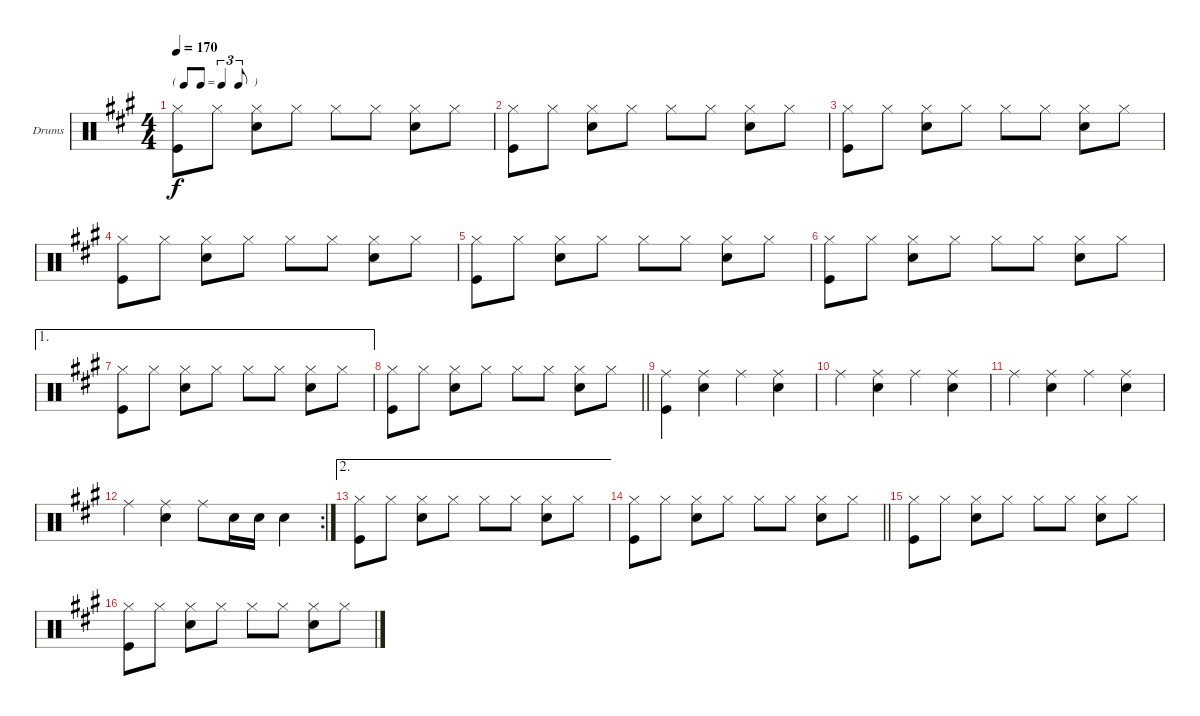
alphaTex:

\bracketExtendMode groupsimilarinstruments
\firstSystemTrackNameOrientation horizontal
\otherSystemsTrackNameOrientation horizontal
\track ("Ringo" "Drums") {instrument percussion}
\staff {score}
\articulation defaults
\ts (4 4)
\tf triplet8th
\tempo 170
\clef neutral
\ks a
("Hi-Hat (closed)" "Kick (hit)").8{dy f} "Hi-Hat (closed)".8 ("Hi-Hat (closed)" "Snare (hit) 2").8 "Hi-Hat (closed)".8 "Hi-Hat (closed)".8 "Hi-Hat (closed)".8 ("Hi-Hat (closed)" "Snare (hit) 2").8 "Hi-Hat (closed)".8 |
("Hi-Hat (closed)" "Kick (hit)").8 "Hi-Hat (closed)".8 ("Hi-Hat (closed)" "Snare (hit) 2").8 "Hi-Hat (closed)".8 "Hi-Hat (closed)".8 "Hi-Hat (closed)".8 ("Hi-Hat (closed)" "Snare (hit) 2").8 "Hi-Hat (closed)".8 |
("Hi-Hat (closed)" "Kick (hit)").8 "Hi-Hat (closed)".8 ("Hi-Hat (closed)" "Snare (hit) 2").8 "Hi-Hat (closed)".8 "Hi-Hat (closed)".8 "Hi-Hat (closed)".8 ("Hi-Hat (closed)" "Snare (hit) 2").8 "Hi-Hat (closed)".8 |
("Hi-Hat (closed)" "Kick (hit)").8 "Hi-Hat (closed)".8 ("Hi-Hat (closed)" "Snare (hit) 2").8 "Hi-Hat (closed)".8 "Hi-Hat (closed)".8 "Hi-Hat (closed)".8 ("Hi-Hat (closed)" "Snare (hit) 2").8 "Hi-Hat (closed)".8 |
("Hi-Hat (closed)" "Kick (hit)").8 "Hi-Hat (closed)".8 ("Hi-Hat (closed)" "Snare (hit) 2").8 "Hi-Hat (closed)".8 "Hi-Hat (closed)".8 "Hi-Hat (closed)".8 ("Hi-Hat (closed)" "Snare (hit) 2").8 "Hi-Hat (closed)".8 |
("Hi-Hat (closed)" "Kick (hit)").8 "Hi-Hat (closed)".8 ("Hi-Hat (closed)" "Snare (hit) 2").8 "Hi-Hat (closed)".8 "Hi-Hat (closed)".8 "Hi-Hat (closed)".8 ("Hi-Hat (closed)" "Snare (hit) 2").8 "Hi-Hat (closed)".8 |
\ae 1
("Hi-Hat (closed)" "Kick (hit)").8 "Hi-Hat (closed)".8 ("Hi-Hat (closed)" "Snare (hit) 2").8 "Hi-Hat (closed)".8 "Hi-Hat (closed)".8 "Hi-Hat (closed)".8 ("Hi-Hat (closed)" "Snare (hit) 2").8 "Hi-Hat (closed)".8 |
\barLineRight lightlight
("Hi-Hat (closed)" "Kick (hit)").8 "Hi-Hat (closed)".8 ("Hi-Hat (closed)" "Snare (hit) 2").8 "Hi-Hat (closed)".8 "Hi-Hat (closed)".8 "Hi-Hat (closed)".8 ("Hi-Hat (closed)" "Snare (hit) 2").8 "Hi-Hat (closed)".8 |
("Ride (middle)" "Kick (hit)").4 ("Ride (middle)" "Snare (hit) 2").4 "Ride (middle)".4 ("Ride (middle)" "Snare (hit) 2").4 |
"Ride (middle)".4 ("Ride (middle)" "Snare (hit) 2").4 "Ride (middle)".4 ("Ride (middle)" "Snare (hit) 2").4 |
"Ride (middle)".4 ("Ride (middle)" "Snare (hit) 2").4 "Ride (middle)".4 ("Ride (middle)" "Snare (hit) 2").4 |
\rc 2 "Ride (middle)".4
("Ride (middle)" "Snare (hit) 2").4 "Ride (middle)".8 "Snare (hit) 2".16 "Snare (hit) 2".16 "Snare (hit) 2".4 |
\ae 2
("Hi-Hat (closed)" "Kick (hit)").8 "Hi-Hat (closed)".8 ("Hi-Hat (closed)" "Snare (hit) 2").8 "Hi-Hat (closed)".8 "Hi-Hat (closed)".8 "Hi-Hat (closed)".8 ("Hi-Hat (closed)" "Snare (hit) 2").8 "Hi-Hat (closed)".8 |
\barLineRight lightlight
("Hi-Hat (closed)" "Kick (hit)").8 "Hi-Hat (closed)".8 ("Hi-Hat (closed)" "Snare (hit) 2").8 "Hi-Hat (closed)".8 "Hi-Hat (closed)".8 "Hi-Hat (closed)".8 ("Hi-Hat (closed)" "Snare (hit) 2").8 "Hi-Hat (closed)".8 |
("Hi-Hat (closed)" "Kick (hit)").8 "Hi-Hat (closed)".8 ("Hi-Hat (closed)" "Snare (hit) 2").8 "Hi-Hat (closed)".8 "Hi-Hat (closed)".8 "Hi-Hat (closed)".8 ("Hi-Hat (closed)" "Snare (hit) 2").8 "Hi-Hat (closed)".8 |
("Hi-Hat (closed)" "Kick (hit)").8 "Hi-Hat (closed)".8 ("Hi-Hat (closed)" "Snare (hit) 2").8 "Hi-Hat (closed)".8 "Hi-Hat (closed)".8 "Hi-Hat (closed)".8 ("Hi-Hat (closed)" "Snare (hit) 2").8 "Hi-Hat (closed)".8
